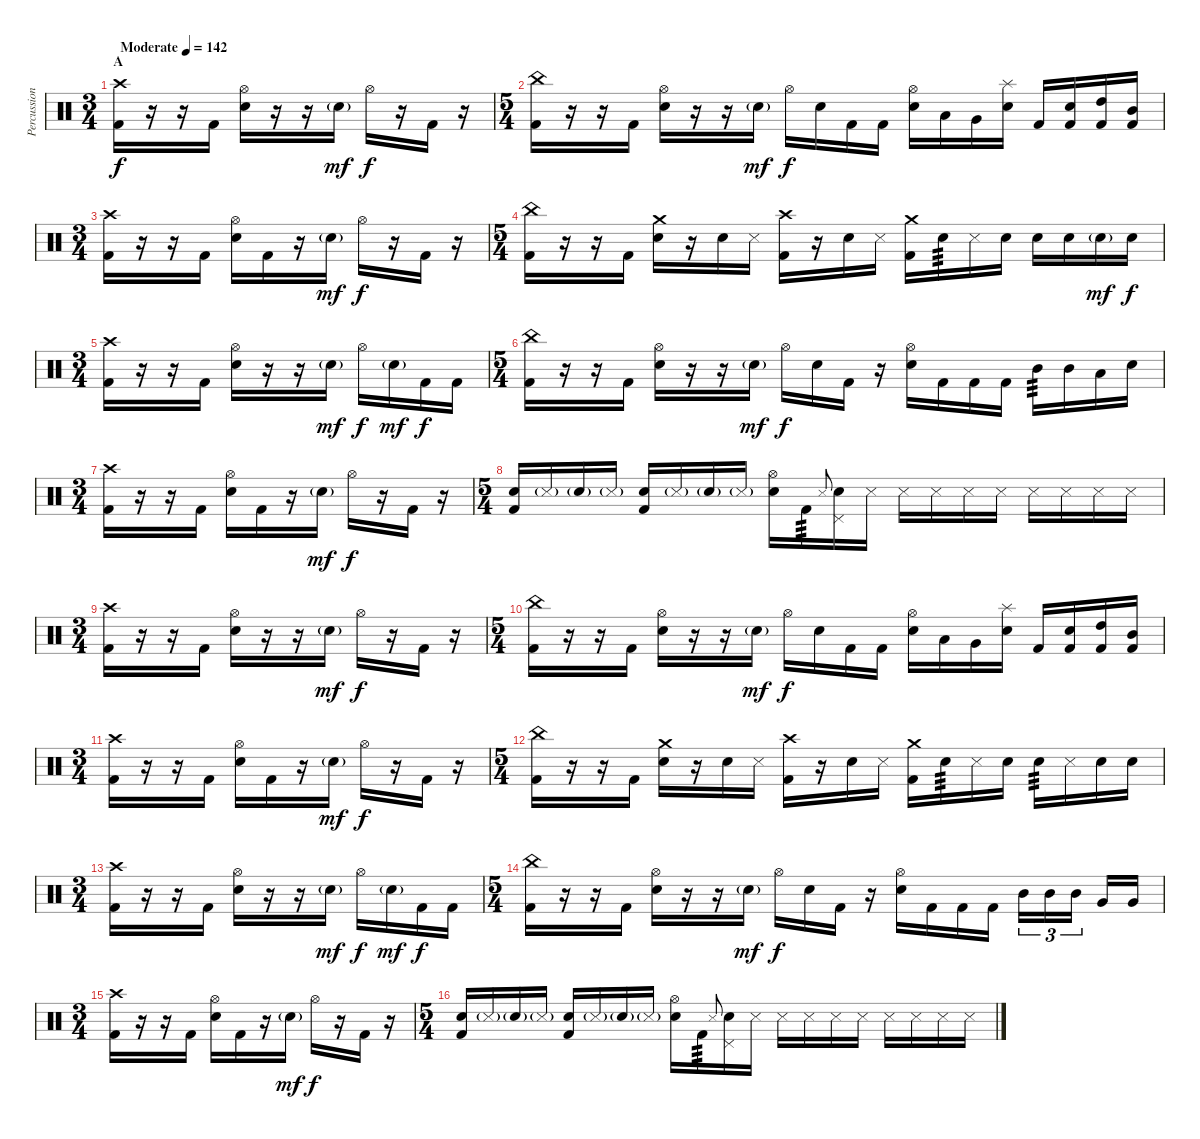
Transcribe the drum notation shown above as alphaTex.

\track ("Percussion" "Percussion") {instrument percussion}
\staff {score}
\articulation defaults
\ts (3 4)
\section ("" "A")
\tempo (142 "Moderate")
\clef neutral
\ks c
("Crash high (hit)" "Kick (hit) 2").16{dy f} r.16 r.16 "Kick (hit) 2".16 ("Hi-Hat (open)" "Snare (hit) 2").16 r.16 r.16 "Snare (hit) 2"{g}.16{dy mf} "Hi-Hat (open)".16{dy f} r.16 "Kick (hit) 2".16 r.16 |
\ts (5 4)
("China (hit)" "Kick (hit) 2").16 r.16 r.16 "Kick (hit) 2".16 ("Hi-Hat (open)" "Snare (hit) 2").16 r.16 r.16 "Snare (hit) 2"{g}.16{dy mf} "Hi-Hat (open)".16{dy f} "Snare (hit) 2".16 "Kick (hit) 2".16 "Kick (hit) 2".16 ("Hi-Hat (open)" "Snare (hit) 2").16 "Low Tom (hit)".16 "Very Low Tom (hit)".16 ("Splash (hit)" "Snare (hit) 2").16 "Kick (hit) 2".16 ("Snare (hit) 2" "Kick (hit) 2").16 ("High Tom (hit)" "Kick (hit) 2").16 ("Mid Tom (hit)" "Kick (hit) 2").16 |
\ts (3 4)
("Crash high (hit)" "Kick (hit) 2").16 r.16 r.16 "Kick (hit) 2".16 ("Hi-Hat (open)" "Snare (hit) 2").16 "Kick (hit) 2".16 r.16 "Snare (hit) 2"{g}.16{dy mf} "Hi-Hat (open)".16{dy f} r.16 "Kick (hit) 2".16 r.16 |
\ts (5 4)
("China (hit)" "Kick (hit) 2").16 r.16 r.16 "Kick (hit) 2".16 ("Crash medium (hit)" "Snare (hit) 2").16 r.16 "Snare (hit) 2".16 "Metronome (hit)".16 ("Crash high (hit)" "Kick (hit) 2").16 r.16 "Snare (hit) 2".16 "Metronome (hit)".16 ("Crash medium (hit)" "Kick (hit) 2").16 "Snare (hit) 2".16{tp 3} "Metronome (hit)".16 "Snare (hit) 2".16 "Snare (hit) 2".16 "Snare (hit) 2".16 "Snare (hit) 2"{g}.16{dy mf} "Snare (hit) 2".16{dy f} |
\ts (3 4)
("Crash high (hit)" "Kick (hit) 2").16 r.16 r.16 "Kick (hit) 2".16 ("Hi-Hat (open)" "Snare (hit) 2").16 r.16 r.16 "Snare (hit) 2"{g}.16{dy mf} "Hi-Hat (open)".16{dy f} "Snare (hit) 2"{g}.16{dy mf} "Kick (hit) 2".16{dy f} "Kick (hit) 2".16 |
\ts (5 4)
("China (hit)" "Kick (hit) 2").16 r.16 r.16 "Kick (hit) 2".16 ("Hi-Hat (open)" "Snare (hit) 2").16 r.16 r.16 "Snare (hit) 2"{g}.16{dy mf} "Hi-Hat (open)".16{dy f} "Snare (hit) 2".16 "Kick (hit) 2".16 r.16 ("Hi-Hat (open)" "Snare (hit) 2").16 "Kick (hit) 2".16 "Kick (hit) 2".16 "Kick (hit) 2".16 "Mid Tom (hit)".16{tp 3} "Mid Tom (hit)".16 "Low Tom (hit)".16 "Snare (hit) 2".16 |
\ts (3 4)
("Crash high (hit)" "Kick (hit) 2").16 r.16 r.16 "Kick (hit) 2".16 ("Hi-Hat (open)" "Snare (hit) 2").16 "Kick (hit) 2".16 r.16 "Snare (hit) 2"{g}.16{dy mf} "Hi-Hat (open)".16{dy f} r.16 "Kick (hit) 2".16 r.16 |
\ts (5 4)
("Snare (hit) 2" "Kick (hit) 2").16 "Metronome (hit)"{g}.16 "Snare (hit) 2"{g}.16 "Metronome (hit)"{g}.16 ("Snare (hit) 2" "Kick (hit) 2").16 "Metronome (hit)"{g}.16 "Snare (hit) 2"{g}.16 "Metronome (hit)"{g}.16 ("Hi-Hat (open)" "Snare (hit) 2").16 "Kick (hit) 2".16{tp 3} "Metronome (hit)".8{gr onbeat} ("Pedal Hi-Hat (hit)" "Snare (hit) 2").16 "Snare (side stick) 3".16 "Snare (side stick) 3".16 "Snare (side stick) 3".16 "Snare (side stick) 3".16 "Snare (side stick) 3".16 "Snare (side stick) 3".16 "Snare (side stick) 3".16 "Snare (side stick) 3".16 "Snare (side stick) 3".16 |
\ts (3 4)
("Crash high (hit)" "Kick (hit) 2").16 r.16 r.16 "Kick (hit) 2".16 ("Hi-Hat (open)" "Snare (hit) 2").16 r.16 r.16 "Snare (hit) 2"{g}.16{dy mf} "Hi-Hat (open)".16{dy f} r.16 "Kick (hit) 2".16 r.16 |
\ts (5 4)
("China (hit)" "Kick (hit) 2").16 r.16 r.16 "Kick (hit) 2".16 ("Hi-Hat (open)" "Snare (hit) 2").16 r.16 r.16 "Snare (hit) 2"{g}.16{dy mf} "Hi-Hat (open)".16{dy f} "Snare (hit) 2".16 "Kick (hit) 2".16 "Kick (hit) 2".16 ("Hi-Hat (open)" "Snare (hit) 2").16 "Low Tom (hit)".16 "Very Low Tom (hit)".16 ("Splash (hit)" "Snare (hit) 2").16 "Kick (hit) 2".16 ("Snare (hit) 2" "Kick (hit) 2").16 ("High Tom (hit)" "Kick (hit) 2").16 ("Mid Tom (hit)" "Kick (hit) 2").16 |
\ts (3 4)
("Crash high (hit)" "Kick (hit) 2").16 r.16 r.16 "Kick (hit) 2".16 ("Hi-Hat (open)" "Snare (hit) 2").16 "Kick (hit) 2".16 r.16 "Snare (hit) 2"{g}.16{dy mf} "Hi-Hat (open)".16{dy f} r.16 "Kick (hit) 2".16 r.16 |
\ts (5 4)
("China (hit)" "Kick (hit) 2").16 r.16 r.16 "Kick (hit) 2".16 ("Crash medium (hit)" "Snare (hit) 2").16 r.16 "Snare (hit) 2".16 "Metronome (hit)".16 ("Crash high (hit)" "Kick (hit) 2").16 r.16 "Snare (hit) 2".16 "Metronome (hit)".16 ("Crash medium (hit)" "Kick (hit) 2").16 "Snare (hit) 2".16{tp 3} "Metronome (hit)".16 "Snare (hit) 2".16 "Snare (hit) 2".16{tp 3} "Metronome (hit)".16 "Snare (hit) 2".16 "Snare (hit) 2".16 |
\ts (3 4)
("Crash high (hit)" "Kick (hit) 2").16 r.16 r.16 "Kick (hit) 2".16 ("Hi-Hat (open)" "Snare (hit) 2").16 r.16 r.16 "Snare (hit) 2"{g}.16{dy mf} "Hi-Hat (open)".16{dy f} "Snare (hit) 2"{g}.16{dy mf} "Kick (hit) 2".16{dy f} "Kick (hit) 2".16 |
\ts (5 4)
("China (hit)" "Kick (hit) 2").16 r.16 r.16 "Kick (hit) 2".16 ("Hi-Hat (open)" "Snare (hit) 2").16 r.16 r.16 "Snare (hit) 2"{g}.16{dy mf} "Hi-Hat (open)".16{dy f} "Snare (hit) 2".16 "Kick (hit) 2".16 r.16 ("Hi-Hat (open)" "Snare (hit) 2").16 "Kick (hit) 2".16 "Kick (hit) 2".16 "Kick (hit) 2".16 "Mid Tom (hit)".16{tu (3 2)} "Mid Tom (hit)".16{tu (3 2)} "Mid Tom (hit)".16{tu (3 2) beam splitsecondary} "Very Low Tom (hit)".16 "Very Low Tom (hit)".16 |
\ts (3 4)
("Crash high (hit)" "Kick (hit) 2").16 r.16 r.16 "Kick (hit) 2".16 ("Hi-Hat (open)" "Snare (hit) 2").16 "Kick (hit) 2".16 r.16 "Snare (hit) 2"{g}.16{dy mf} "Hi-Hat (open)".16{dy f} r.16 "Kick (hit) 2".16 r.16 |
\ts (5 4)
("Snare (hit) 2" "Kick (hit) 2").16 "Metronome (hit)"{g}.16 "Snare (hit) 2"{g}.16 "Metronome (hit)"{g}.16 ("Snare (hit) 2" "Kick (hit) 2").16 "Metronome (hit)"{g}.16 "Snare (hit) 2"{g}.16 "Metronome (hit)"{g}.16 ("Hi-Hat (open)" "Snare (hit) 2").16 "Kick (hit) 2".16{tp 3} "Metronome (hit)".8{gr onbeat} ("Pedal Hi-Hat (hit)" "Snare (hit) 2").16 "Snare (side stick) 3".16 "Snare (side stick) 3".16 "Snare (side stick) 3".16 "Snare (side stick) 3".16 "Snare (side stick) 3".16 "Snare (side stick) 3".16 "Snare (side stick) 3".16 "Snare (side stick) 3".16 "Snare (side stick) 3".16
